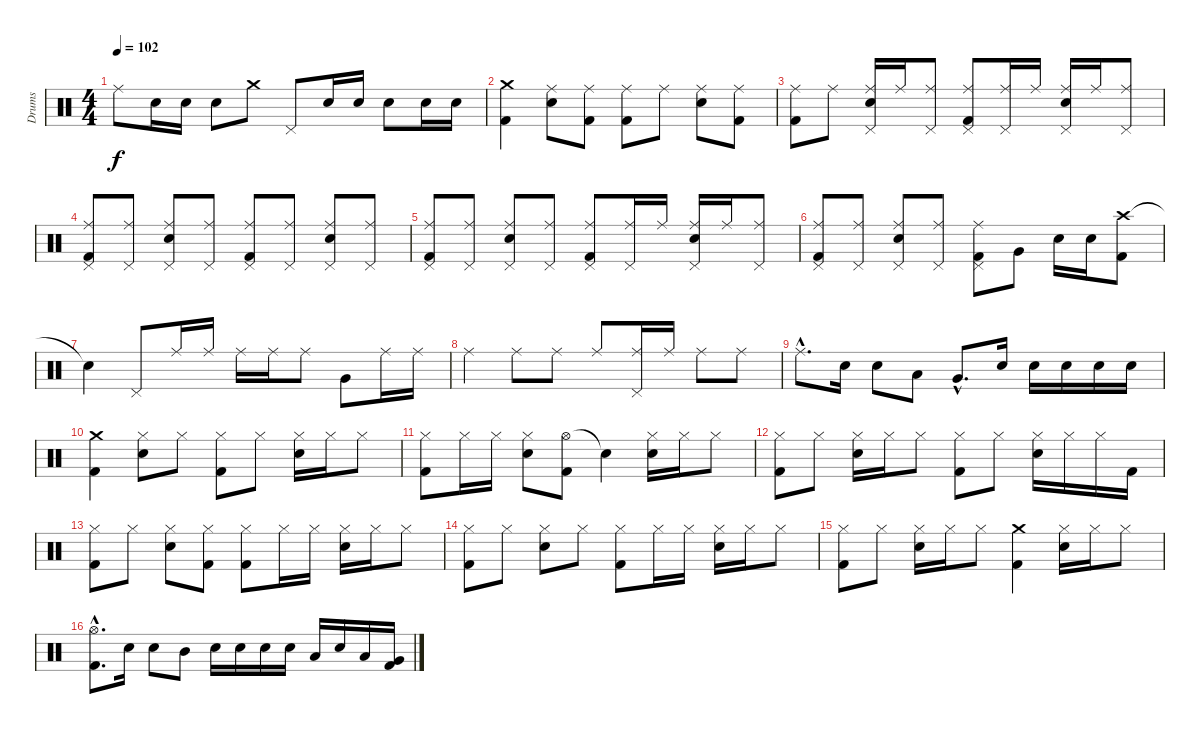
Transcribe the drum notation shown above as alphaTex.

\track ("Drums" "Drums") {instrument percussion}
\staff {score}
\articulation defaults
\ts (4 4)
\tempo 102
\clef neutral
\ks c "Ride (middle)".8{dy f} "Snare (hit) 2".16 "Snare (hit) 2".16 "Snare (hit) 2".8 "Crash medium (hit)".8 "Pedal Hi-Hat (hit)".8 "Snare (hit) 2".16 "Snare (hit) 2".16 "Snare (hit) 2".8 "Snare (hit) 2".16 "Snare (hit) 2".16
|
("Crash medium (hit)" "Kick (hit) 2").4 ("Ride (middle)" "Snare (hit) 2").8 ("Ride (middle)" "Kick (hit) 2").8 ("Ride (middle)" "Kick (hit) 2").8 "Ride (middle)".8 ("Ride (middle)" "Snare (hit) 2").8 ("Ride (middle)" "Kick (hit) 2").8 |
("Ride (middle)" "Kick (hit) 2").8 "Ride (middle)".8 ("Ride (middle)" "Pedal Hi-Hat (hit)" "Snare (hit) 2").16 "Ride (middle)".16 ("Ride (middle)" "Pedal Hi-Hat (hit)").8 ("Ride (middle)" "Pedal Hi-Hat (hit)" "Kick (hit) 2").8 ("Ride (middle)" "Pedal Hi-Hat (hit)").16 "Ride (middle)".16 ("Ride (middle)" "Pedal Hi-Hat (hit)" "Snare (hit) 2").16 "Ride (middle)".16 ("Ride (middle)" "Pedal Hi-Hat (hit)").8 |
("Ride (middle)" "Pedal Hi-Hat (hit)" "Kick (hit) 2").8 ("Ride (middle)" "Pedal Hi-Hat (hit)").8 ("Ride (middle)" "Pedal Hi-Hat (hit)" "Snare (hit) 2").8 ("Ride (middle)" "Pedal Hi-Hat (hit)").8 ("Ride (middle)" "Pedal Hi-Hat (hit)" "Kick (hit) 2").8 ("Ride (middle)" "Pedal Hi-Hat (hit)").8 ("Ride (middle)" "Pedal Hi-Hat (hit)" "Snare (hit) 2").8 ("Ride (middle)" "Pedal Hi-Hat (hit)").8 |
("Ride (middle)" "Pedal Hi-Hat (hit)" "Kick (hit) 2").8 ("Ride (middle)" "Pedal Hi-Hat (hit)").8 ("Ride (middle)" "Pedal Hi-Hat (hit)" "Snare (hit) 2").8 ("Ride (middle)" "Pedal Hi-Hat (hit)").8 ("Ride (middle)" "Pedal Hi-Hat (hit)" "Kick (hit) 2").8 ("Ride (middle)" "Pedal Hi-Hat (hit)").16 "Ride (middle)".16 ("Ride (middle)" "Pedal Hi-Hat (hit)" "Snare (hit) 2").16 "Ride (middle)".16 ("Ride (middle)" "Pedal Hi-Hat (hit)").8 |
("Ride (middle)" "Pedal Hi-Hat (hit)" "Kick (hit) 2").8 ("Ride (middle)" "Pedal Hi-Hat (hit)").8 ("Ride (middle)" "Pedal Hi-Hat (hit)" "Snare (hit) 2").8 ("Ride (middle)" "Pedal Hi-Hat (hit)").8 ("Ride (middle)" "Pedal Hi-Hat (hit)" "Kick (hit) 2").8 "Very Low Tom (hit)".8 "Snare (hit) 2".16 "Snare (hit) 2".16 ("Crash high (hit)" "Kick (hit) 2").8 |
"Snare (hit)"{t}.4 "Pedal Hi-Hat (hit)".8 "Ride (middle)".16 "Ride (middle)".16 "Ride (middle)".16 "Ride (middle)".16 "Ride (middle)".8 "Very Low Tom (hit)".8 "Ride (middle)".16 "Ride (middle)".16 |
"Ride (middle)".4 "Ride (middle)".8 "Ride (middle)".8 "Ride (middle)".8 ("Ride (middle)" "Pedal Hi-Hat (hit)").16 "Ride (middle)".16 "Ride (middle)".8 "Ride (middle)".8 |
"Ride (middle)"{hac}.8{d} "Snare (hit) 2".16 "Snare (hit) 2".8 "Low Tom (hit)".8 "Very Low Tom (hit)"{hac}.8{d} "Snare (hit) 2".16 "Snare (hit) 2".16 "Snare (hit) 2".16 "Snare (hit) 2".16 "Snare (hit) 2".16 |
("Crash medium (hit)" "Kick (hit) 2").4 ("Hi-Hat (closed)" "Snare (hit) 2").8 "Hi-Hat (closed)".8 ("Hi-Hat (closed)" "Kick (hit) 2").8 "Hi-Hat (closed)".8 ("Hi-Hat (closed)" "Snare (hit) 2").16 "Hi-Hat (closed)".16 "Hi-Hat (closed)".8 |
("Hi-Hat (closed)" "Kick (hit) 2").8 "Hi-Hat (closed)".16 "Hi-Hat (closed)".16 ("Hi-Hat (closed)" "Snare (hit) 2").8 ("Hi-Hat (open)" "Kick (hit) 2").8 "Snare (hit)"{t}.4 ("Hi-Hat (closed)" "Snare (hit) 2").16 "Hi-Hat (closed)".16 "Hi-Hat (closed)".8 |
("Hi-Hat (closed)" "Kick (hit) 2").8 "Hi-Hat (closed)".8 ("Hi-Hat (closed)" "Snare (hit) 2").16 "Hi-Hat (closed)".16 "Hi-Hat (closed)".8 ("Hi-Hat (closed)" "Kick (hit) 2").8 "Hi-Hat (closed)".8 ("Hi-Hat (closed)" "Snare (hit) 2").16 "Hi-Hat (closed)".16 "Hi-Hat (closed)".16 "Kick (hit) 2".16 |
("Hi-Hat (closed)" "Kick (hit) 2").8 "Hi-Hat (closed)".8 ("Hi-Hat (closed)" "Snare (hit) 2").8 ("Hi-Hat (closed)" "Kick (hit) 2").8 ("Hi-Hat (closed)" "Kick (hit) 2").8 "Hi-Hat (closed)".16 "Hi-Hat (closed)".16 ("Hi-Hat (closed)" "Snare (hit) 2").16 "Hi-Hat (closed)".16 "Hi-Hat (closed)".8 |
("Hi-Hat (closed)" "Kick (hit) 2").8 "Hi-Hat (closed)".8 ("Hi-Hat (closed)" "Snare (hit) 2").8 "Hi-Hat (closed)".8 ("Hi-Hat (closed)" "Kick (hit) 2").8 "Hi-Hat (closed)".16 "Hi-Hat (closed)".16 ("Hi-Hat (closed)" "Snare (hit) 2").16 "Hi-Hat (closed)".16 "Hi-Hat (closed)".8 |
("Hi-Hat (closed)" "Kick (hit) 2").8 "Hi-Hat (closed)".8 ("Hi-Hat (closed)" "Snare (hit) 2").16 "Hi-Hat (closed)".16 "Hi-Hat (closed)".8 ("Crash medium (hit)" "Kick (hit) 2").4 ("Hi-Hat (closed)" "Snare (hit) 2").16 "Hi-Hat (closed)".16 "Hi-Hat (closed)".8 |
("Hi-Hat (open)"{hac} "Kick (hit) 2"{hac}).8{d} "Snare (hit) 2".16 "Snare (hit) 2".8 "Mid Tom (hit)".8 "Snare (hit) 2".16 "Snare (hit) 2".16 "Snare (hit) 2".16 "Snare (hit) 2".16 "Low Tom (hit)".16 "Snare (hit) 2".16 "Low Tom (hit)".16 ("Very Low Tom (hit)" "Kick (hit) 2").16
